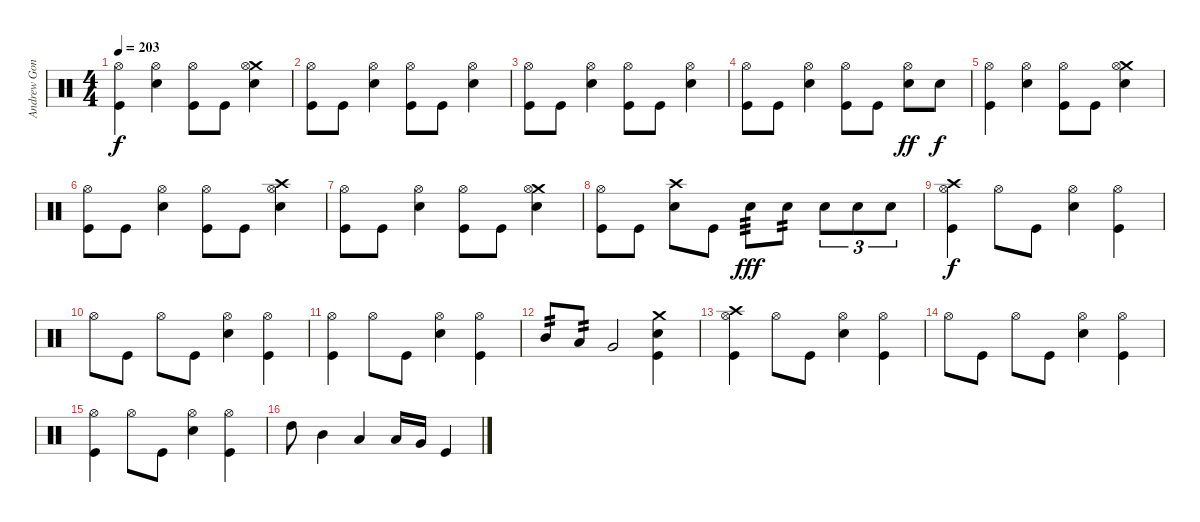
\track ("Andrew Gonzales" "Andrew Gon") {instrument percussion}
\staff {score}
\articulation defaults
\ts (4 4)
\tempo 203
\clef neutral
\ks c
("Hi-Hat (open)" "Kick (hit)").4{dy f} ("Hi-Hat (open)" "Electric Snare (hit)").4 ("Hi-Hat (open)" "Kick (hit)").8 "Kick (hit)".8 ("Crash medium (hit)" "Hi-Hat (open)" "Electric Snare (hit)").4 |
("Hi-Hat (open)" "Kick (hit)").8 "Kick (hit)".8 ("Hi-Hat (open)" "Electric Snare (hit)").4 ("Hi-Hat (open)" "Kick (hit)").8 "Kick (hit)".8 ("Hi-Hat (open)" "Electric Snare (hit)").4 |
("Hi-Hat (open)" "Kick (hit)").8 "Kick (hit)".8 ("Hi-Hat (open)" "Electric Snare (hit)").4 ("Hi-Hat (open)" "Kick (hit)").8 "Kick (hit)".8 ("Hi-Hat (open)" "Electric Snare (hit)").4 |
("Hi-Hat (open)" "Kick (hit)").8 "Kick (hit)".8 ("Hi-Hat (open)" "Electric Snare (hit)").4 ("Hi-Hat (open)" "Kick (hit)").8 "Kick (hit)".8 ("Hi-Hat (open)" "Electric Snare (hit)").8{dy ff} "Electric Snare (hit)".8{dy f} |
("Hi-Hat (open)" "Kick (hit)").4 ("Hi-Hat (open)" "Electric Snare (hit)").4 ("Hi-Hat (open)" "Kick (hit)").8 "Kick (hit)".8 ("Crash medium (hit)" "Hi-Hat (open)" "Electric Snare (hit)").4 |
("Hi-Hat (open)" "Kick (hit)").8 "Kick (hit)".8 ("Hi-Hat (open)" "Electric Snare (hit)").4 ("Hi-Hat (open)" "Kick (hit)").8 "Kick (hit)".8 ("Crash high (hit)" "Hi-Hat (open)" "Electric Snare (hit)").4 |
("Hi-Hat (open)" "Kick (hit)").8 "Kick (hit)".8 ("Hi-Hat (open)" "Electric Snare (hit)").4 ("Hi-Hat (open)" "Kick (hit)").8 "Kick (hit)".8 ("Crash medium (hit)" "Hi-Hat (open)" "Electric Snare (hit)").4 |
("Hi-Hat (open)" "Kick (hit)").8 "Kick (hit)".8 ("Crash high (hit)" "Electric Snare (hit)").8 "Kick (hit)".8 "Electric Snare (hit)".8{tp 3 dy fff} "Electric Snare (hit)".8{tp 2} "Electric Snare (hit)".8{tu (3 2)} "Electric Snare (hit)".8{tu (3 2)} "Electric Snare (hit)".8{tu (3 2)} |
("Crash high (hit)" "Hi-Hat (open)" "Kick (hit)").4{dy f} "Hi-Hat (open)".8 "Kick (hit)".8 ("Hi-Hat (open)" "Electric Snare (hit)").4 ("Hi-Hat (open)" "Kick (hit)").4 |
"Hi-Hat (open)".8 "Kick (hit)".8 "Hi-Hat (open)".8 "Kick (hit)".8 ("Hi-Hat (open)" "Electric Snare (hit)").4 ("Hi-Hat (open)" "Kick (hit)").4 |
("Hi-Hat (open)" "Kick (hit)").4 "Hi-Hat (open)".8 "Kick (hit)".8 ("Hi-Hat (open)" "Electric Snare (hit)").4 ("Hi-Hat (open)" "Kick (hit)").4 |
"Mid Tom (hit)".8{tp 2} "Low Tom (hit)".8{tp 2} "Very Low Tom (hit)".2 ("Crash medium (hit)" "Electric Snare (hit)" "Kick (hit)").4 |
("Crash high (hit)" "Hi-Hat (open)" "Kick (hit)").4 "Hi-Hat (open)".8 "Kick (hit)".8 ("Hi-Hat (open)" "Electric Snare (hit)").4 ("Hi-Hat (open)" "Kick (hit)").4 |
"Hi-Hat (open)".8 "Kick (hit)".8 "Hi-Hat (open)".8 "Kick (hit)".8 ("Hi-Hat (open)" "Electric Snare (hit)").4 ("Hi-Hat (open)" "Kick (hit)").4 |
("Hi-Hat (open)" "Kick (hit)").4 "Hi-Hat (open)".8 "Kick (hit)".8 ("Hi-Hat (open)" "Electric Snare (hit)").4 ("Hi-Hat (open)" "Kick (hit)").4 |
"High Tom (hit)".8 "Mid Tom (hit)".4 "Low Tom (hit)".4 "Low Tom (hit)".16 "Very Low Tom (hit)".16 "Kick (hit)".4
